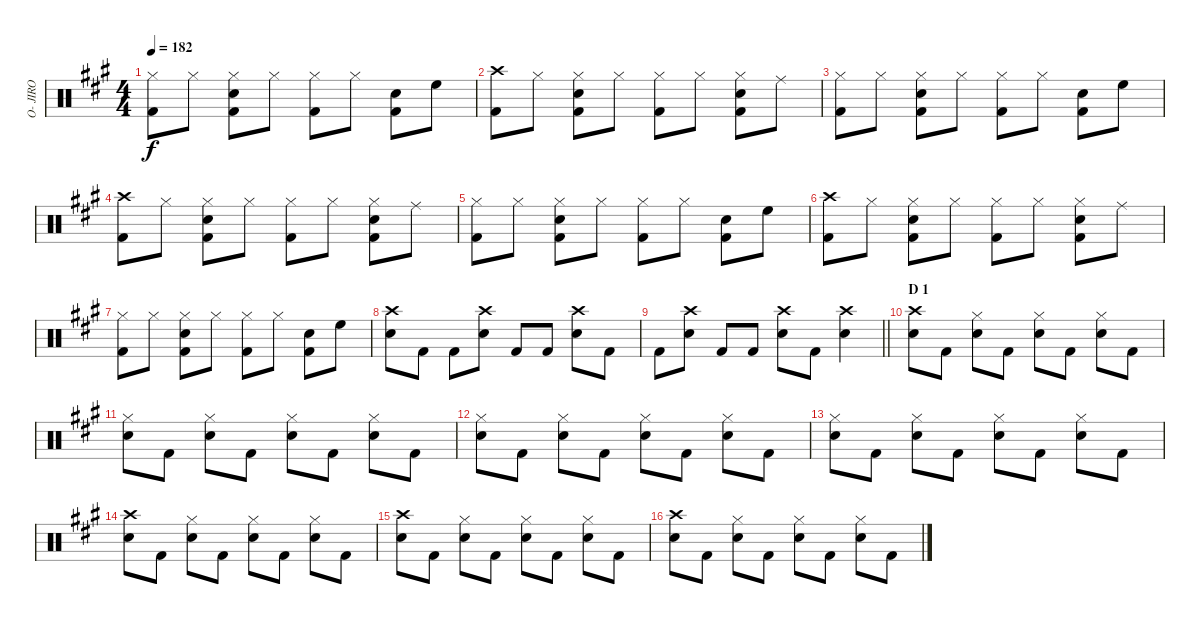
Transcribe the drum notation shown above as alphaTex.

\track ("O- JIRO" "O- JIRO") {instrument percussion}
\staff {score}
\articulation defaults
\ts (4 4)
\tempo 182
\clef neutral
\ks a
("Hi-Hat (closed)" "Kick (hit) 2").8{dy f} "Hi-Hat (closed)".8 ("Hi-Hat (closed)" "Snare (hit) 2" "Kick (hit) 2").8 "Hi-Hat (closed)".8 ("Hi-Hat (closed)" "Kick (hit) 2").8 "Hi-Hat (closed)".8 ("Snare (hit) 2" "Kick (hit) 2").8 "High Floor Tom (hit)".8 |
("Crash high (hit)" "Kick (hit) 2").8 "Hi-Hat (closed)".8 ("Hi-Hat (closed)" "Snare (hit) 2" "Kick (hit) 2").8 "Hi-Hat (closed)".8 ("Hi-Hat (closed)" "Kick (hit) 2").8 "Hi-Hat (closed)".8 ("Hi-Hat (closed)" "Snare (hit) 2" "Kick (hit) 2").8 "Ride (middle)".8 |
("Hi-Hat (closed)" "Kick (hit) 2").8 "Hi-Hat (closed)".8 ("Hi-Hat (closed)" "Snare (hit) 2" "Kick (hit) 2").8 "Hi-Hat (closed)".8 ("Hi-Hat (closed)" "Kick (hit) 2").8 "Hi-Hat (closed)".8 ("Snare (hit) 2" "Kick (hit) 2").8 "High Floor Tom (hit)".8 |
("Crash high (hit)" "Kick (hit) 2").8 "Hi-Hat (closed)".8 ("Hi-Hat (closed)" "Snare (hit) 2" "Kick (hit) 2").8 "Hi-Hat (closed)".8 ("Hi-Hat (closed)" "Kick (hit) 2").8 "Hi-Hat (closed)".8 ("Hi-Hat (closed)" "Snare (hit) 2" "Kick (hit) 2").8 "Ride (middle)".8 |
("Hi-Hat (closed)" "Kick (hit) 2").8 "Hi-Hat (closed)".8 ("Hi-Hat (closed)" "Snare (hit) 2" "Kick (hit) 2").8 "Hi-Hat (closed)".8 ("Hi-Hat (closed)" "Kick (hit) 2").8 "Hi-Hat (closed)".8 ("Snare (hit) 2" "Kick (hit) 2").8 "High Floor Tom (hit)".8 |
("Crash high (hit)" "Kick (hit) 2").8 "Hi-Hat (closed)".8 ("Hi-Hat (closed)" "Snare (hit) 2" "Kick (hit) 2").8 "Hi-Hat (closed)".8 ("Hi-Hat (closed)" "Kick (hit) 2").8 "Hi-Hat (closed)".8 ("Hi-Hat (closed)" "Snare (hit) 2" "Kick (hit) 2").8 "Ride (middle)".8 |
("Hi-Hat (closed)" "Kick (hit) 2").8 "Hi-Hat (closed)".8 ("Hi-Hat (closed)" "Snare (hit) 2" "Kick (hit) 2").8 "Hi-Hat (closed)".8 ("Hi-Hat (closed)" "Kick (hit) 2").8 "Hi-Hat (closed)".8 ("Snare (hit) 2" "Kick (hit) 2").8 "High Floor Tom (hit)".8 |
("Crash high (hit)" "Snare (hit) 2").8 "Kick (hit) 2".8 "Kick (hit) 2".8 ("Crash high (hit)" "Snare (hit) 2").8 "Kick (hit) 2".8 "Kick (hit) 2".8 ("Crash high (hit)" "Snare (hit) 2").8 "Kick (hit) 2".8 |
\barLineRight lightlight "Kick (hit) 2".8
("Crash high (hit)" "Snare (hit) 2").8 "Kick (hit) 2".8 "Kick (hit) 2".8 ("Crash high (hit)" "Snare (hit) 2").8 "Kick (hit) 2".8 ("Crash high (hit)" "Snare (hit) 2").4 |
\section ("" "D 1")
("Crash high (hit)" "Snare (hit) 2").8 "Kick (hit) 2".8 ("Hi-Hat (closed)" "Snare (hit) 2").8 "Kick (hit) 2".8 ("Hi-Hat (closed)" "Snare (hit) 2").8 "Kick (hit) 2".8 ("Hi-Hat (closed)" "Snare (hit) 2").8 "Kick (hit) 2".8 |
("Hi-Hat (closed)" "Snare (hit) 2").8 "Kick (hit) 2".8 ("Hi-Hat (closed)" "Snare (hit) 2").8 "Kick (hit) 2".8 ("Hi-Hat (closed)" "Snare (hit) 2").8 "Kick (hit) 2".8 ("Hi-Hat (closed)" "Snare (hit) 2").8 "Kick (hit) 2".8 |
("Hi-Hat (closed)" "Snare (hit) 2").8 "Kick (hit) 2".8 ("Hi-Hat (closed)" "Snare (hit) 2").8 "Kick (hit) 2".8 ("Hi-Hat (closed)" "Snare (hit) 2").8 "Kick (hit) 2".8 ("Hi-Hat (closed)" "Snare (hit) 2").8 "Kick (hit) 2".8 |
("Hi-Hat (closed)" "Snare (hit) 2").8 "Kick (hit) 2".8 ("Hi-Hat (closed)" "Snare (hit) 2").8 "Kick (hit) 2".8 ("Hi-Hat (closed)" "Snare (hit) 2").8 "Kick (hit) 2".8 ("Hi-Hat (closed)" "Snare (hit) 2").8 "Kick (hit) 2".8 |
("Crash high (hit)" "Snare (hit) 2").8 "Kick (hit) 2".8 ("Hi-Hat (closed)" "Snare (hit) 2").8 "Kick (hit) 2".8 ("Hi-Hat (closed)" "Snare (hit) 2").8 "Kick (hit) 2".8 ("Hi-Hat (closed)" "Snare (hit) 2").8 "Kick (hit) 2".8 |
("Crash high (hit)" "Snare (hit) 2").8 "Kick (hit) 2".8 ("Hi-Hat (closed)" "Snare (hit) 2").8 "Kick (hit) 2".8 ("Hi-Hat (closed)" "Snare (hit) 2").8 "Kick (hit) 2".8 ("Hi-Hat (closed)" "Snare (hit) 2").8 "Kick (hit) 2".8 |
("Crash high (hit)" "Snare (hit) 2").8 "Kick (hit) 2".8 ("Hi-Hat (closed)" "Snare (hit) 2").8 "Kick (hit) 2".8 ("Hi-Hat (closed)" "Snare (hit) 2").8 "Kick (hit) 2".8 ("Hi-Hat (closed)" "Snare (hit) 2").8 "Kick (hit) 2".8
